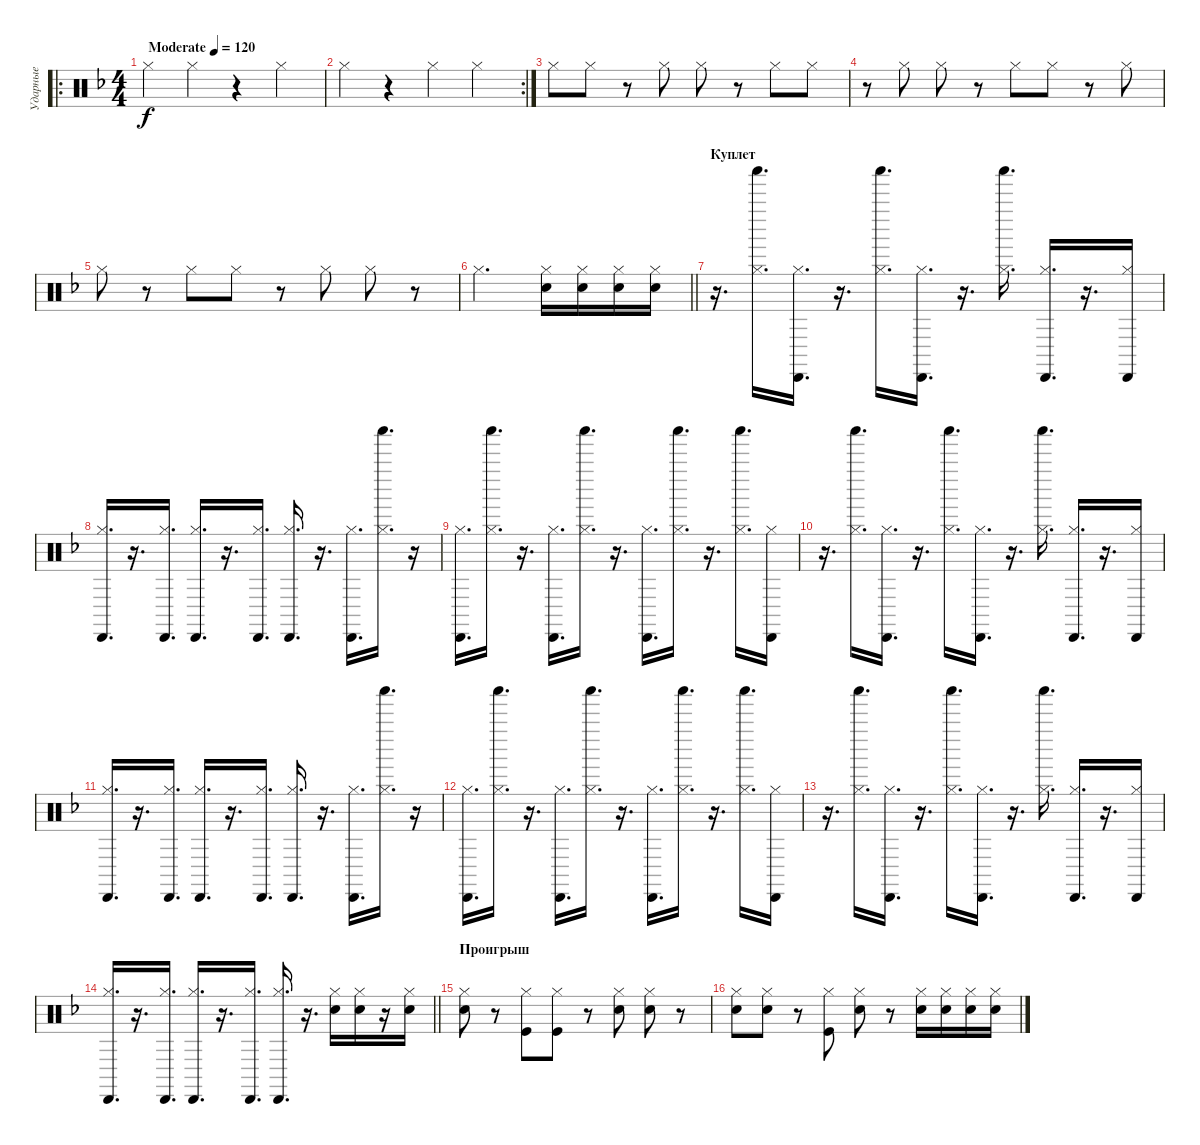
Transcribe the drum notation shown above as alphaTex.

\track ("Ударные" "Ударные") {instrument percussion}
\staff {score}
\articulation defaults
\ro
\ts (4 4)
\tempo (120 "Moderate")
\clef neutral
\ks f "Hi-Hat (closed)".4{dy f} "Hi-Hat (closed)".4
r.4 "Hi-Hat (closed)".4 |
\rc 2 "Hi-Hat (closed)".4
r.4 "Hi-Hat (closed)".4 "Hi-Hat (closed)".4 |
"Hi-Hat (closed)".8 "Hi-Hat (closed)".8 r.8 "Hi-Hat (closed)".8 "Hi-Hat (closed)".8 r.8 "Hi-Hat (closed)".8 "Hi-Hat (closed)".8 |
r.8 "Hi-Hat (closed)".8 "Hi-Hat (closed)".8 r.8 "Hi-Hat (closed)".8 "Hi-Hat (closed)".8 r.8 "Hi-Hat (closed)".8 |
"Hi-Hat (closed)".8 r.8 "Hi-Hat (closed)".8 "Hi-Hat (closed)".8 r.8 "Hi-Hat (closed)".8{volume 16} "Hi-Hat (closed)".8 r.8 |
\barLineRight lightlight "Hi-Hat (closed)".2{d}
("Snare (hit) 2" "Hi-Hat (closed)").16 ("Snare (hit) 2" "Hi-Hat (closed)").16 ("Snare (hit) 2" "Hi-Hat (closed)").16 ("Snare (hit) 2" "Hi-Hat (closed)").16 |
\section ("" "Куплет")
r.16{d volume 6} ("Hi-Hat (closed)" "Shaker (hit)").16{d} ("Hi-Hat (closed)" "Cabasa (hit)").16{d} r.16{d} ("Hi-Hat (closed)" "Shaker (hit)").16{d} ("Hi-Hat (closed)" "Cabasa (hit)").16{d} r.16{d} ("Hi-Hat (closed)" "Shaker (hit)").16{d} ("Hi-Hat (closed)" "Cabasa (hit)").16{d} r.16{d} ("Hi-Hat (closed)" "Cabasa (hit)").16 |
("Hi-Hat (closed)" "Cabasa (hit)").16{d} r.16{d} ("Hi-Hat (closed)" "Cabasa (hit)").16{d} ("Hi-Hat (closed)" "Cabasa (hit)").16{d} r.16{d} ("Hi-Hat (closed)" "Cabasa (hit)").16{d} ("Hi-Hat (closed)" "Cabasa (hit)").16{d} r.16{d} ("Hi-Hat (closed)" "Cabasa (hit)").16{d} ("Hi-Hat (closed)" "Shaker (hit)").16{d} r.16 |
("Hi-Hat (closed)" "Cabasa (hit)").16{d} ("Hi-Hat (closed)" "Shaker (hit)").16{d} r.16{d} ("Hi-Hat (closed)" "Cabasa (hit)").16{d} ("Hi-Hat (closed)" "Shaker (hit)").16{d} r.16{d} ("Hi-Hat (closed)" "Cabasa (hit)").16{d} ("Hi-Hat (closed)" "Shaker (hit)").16{d} r.16{d} ("Hi-Hat (closed)" "Shaker (hit)").16{d} ("Hi-Hat (closed)" "Cabasa (hit)").16 |
r.16{d} ("Hi-Hat (closed)" "Shaker (hit)").16{d} ("Hi-Hat (closed)" "Cabasa (hit)").16{d} r.16{d} ("Hi-Hat (closed)" "Shaker (hit)").16{d} ("Hi-Hat (closed)" "Cabasa (hit)").16{d} r.16{d} ("Hi-Hat (closed)" "Shaker (hit)").16{d} ("Hi-Hat (closed)" "Cabasa (hit)").16{d} r.16{d} ("Hi-Hat (closed)" "Cabasa (hit)").16 |
("Hi-Hat (closed)" "Cabasa (hit)").16{d} r.16{d} ("Hi-Hat (closed)" "Cabasa (hit)").16{d} ("Hi-Hat (closed)" "Cabasa (hit)").16{d} r.16{d} ("Hi-Hat (closed)" "Cabasa (hit)").16{d} ("Hi-Hat (closed)" "Cabasa (hit)").16{d} r.16{d} ("Hi-Hat (closed)" "Cabasa (hit)").16{d} ("Hi-Hat (closed)" "Shaker (hit)").16{d} r.16 |
("Hi-Hat (closed)" "Cabasa (hit)").16{d} ("Hi-Hat (closed)" "Shaker (hit)").16{d} r.16{d} ("Hi-Hat (closed)" "Cabasa (hit)").16{d} ("Hi-Hat (closed)" "Shaker (hit)").16{d} r.16{d} ("Hi-Hat (closed)" "Cabasa (hit)").16{d} ("Hi-Hat (closed)" "Shaker (hit)").16{d} r.16{d} ("Hi-Hat (closed)" "Shaker (hit)").16{d} ("Hi-Hat (closed)" "Cabasa (hit)").16 |
r.16{d} ("Hi-Hat (closed)" "Shaker (hit)").16{d} ("Hi-Hat (closed)" "Cabasa (hit)").16{d} r.16{d} ("Hi-Hat (closed)" "Shaker (hit)").16{d} ("Hi-Hat (closed)" "Cabasa (hit)").16{d} r.16{d} ("Hi-Hat (closed)" "Shaker (hit)").16{d} ("Hi-Hat (closed)" "Cabasa (hit)").16{d} r.16{d} ("Hi-Hat (closed)" "Cabasa (hit)").16 |
\barLineRight lightlight
("Hi-Hat (closed)" "Cabasa (hit)").16{d} r.16{d} ("Hi-Hat (closed)" "Cabasa (hit)").16{d} ("Hi-Hat (closed)" "Cabasa (hit)").16{d} r.16{d} ("Hi-Hat (closed)" "Cabasa (hit)").16{d} ("Hi-Hat (closed)" "Cabasa (hit)").16{d} r.16{d} ("Snare (hit) 2" "Hi-Hat (closed)").16{volume 13} ("Snare (hit) 2" "Hi-Hat (closed)").16 r.16 ("Snare (hit) 2" "Hi-Hat (closed)").16 |
\section ("" "Проигрыш")
("Hi-Hat (closed)" "Snare (hit) 2").8 r.8 ("Hi-Hat (closed)" "Kick (hit)").8 ("Hi-Hat (closed)" "Kick (hit)").8 r.8 ("Hi-Hat (closed)" "Snare (hit) 2").8 ("Hi-Hat (closed)" "Snare (hit) 2").8 r.8 |
("Hi-Hat (closed)" "Snare (hit) 2").8 ("Hi-Hat (closed)" "Snare (hit) 2").8 r.8 ("Hi-Hat (closed)" "Kick (hit)").8 ("Hi-Hat (closed)" "Snare (hit) 2").8 r.8 ("Snare (hit) 2" "Hi-Hat (closed)").16 ("Snare (hit) 2" "Hi-Hat (closed)").16 ("Snare (hit) 2" "Hi-Hat (closed)").16 ("Snare (hit) 2" "Hi-Hat (closed)").16
